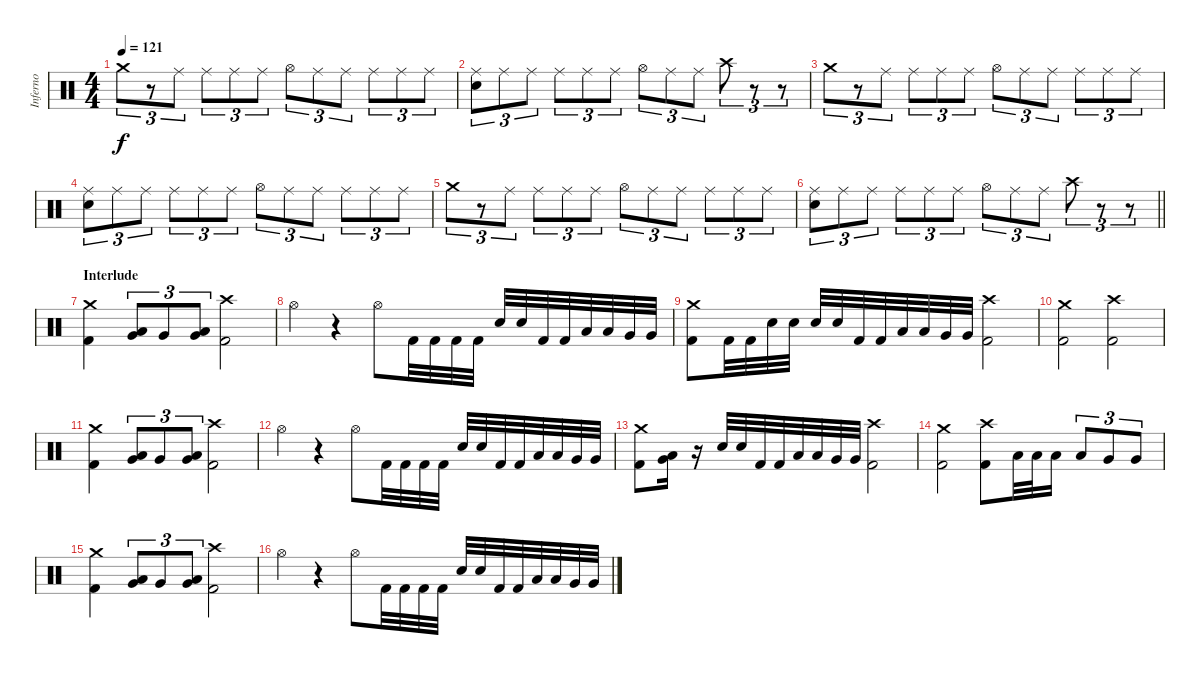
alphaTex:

\track ("Inferno" "Inferno") {instrument percussion}
\staff {score}
\articulation defaults
\ts (4 4)
\tempo 121
\clef neutral
\ks c "Crash medium (hit)".8{tu (3 2) dy f}
r.8{tu (3 2)} "Ride (middle)".8{tu (3 2)} "Ride (middle)".8{tu (3 2)} "Ride (middle)".8{tu (3 2)} "Ride (middle)".8{tu (3 2)} "Hi-Hat (open)".8{tu (3 2)} "Ride (middle)".8{tu (3 2)} "Ride (middle)".8{tu (3 2)} "Ride (middle)".8{tu (3 2)} "Ride (middle)".8{tu (3 2)} "Ride (middle)".8{tu (3 2)} |
("Ride (middle)" "Snare (hit) 2").8{tu (3 2)} "Ride (middle)".8{tu (3 2)} "Ride (middle)".8{tu (3 2)} "Ride (middle)".8{tu (3 2)} "Ride (middle)".8{tu (3 2)} "Ride (middle)".8{tu (3 2)} "Hi-Hat (open)".8{tu (3 2)} "Ride (middle)".8{tu (3 2)} "Ride (middle)".8{tu (3 2)} "Crash high (hit)".8{tu (3 2)} r.8{tu (3 2)} r.8{tu (3 2)} |
"Crash medium (hit)".8{tu (3 2)} r.8{tu (3 2)} "Ride (middle)".8{tu (3 2)} "Ride (middle)".8{tu (3 2)} "Ride (middle)".8{tu (3 2)} "Ride (middle)".8{tu (3 2)} "Hi-Hat (open)".8{tu (3 2)} "Ride (middle)".8{tu (3 2)} "Ride (middle)".8{tu (3 2)} "Ride (middle)".8{tu (3 2)} "Ride (middle)".8{tu (3 2)} "Ride (middle)".8{tu (3 2)} |
("Ride (middle)" "Snare (hit) 2").8{tu (3 2)} "Ride (middle)".8{tu (3 2)} "Ride (middle)".8{tu (3 2)} "Ride (middle)".8{tu (3 2)} "Ride (middle)".8{tu (3 2)} "Ride (middle)".8{tu (3 2)} "Hi-Hat (open)".8{tu (3 2)} "Ride (middle)".8{tu (3 2)} "Ride (middle)".8{tu (3 2)} "Ride (middle)".8{tu (3 2)} "Ride (middle)".8{tu (3 2)} "Ride (middle)".8{tu (3 2)} |
"Crash medium (hit)".8{tu (3 2)} r.8{tu (3 2)} "Ride (middle)".8{tu (3 2)} "Ride (middle)".8{tu (3 2)} "Ride (middle)".8{tu (3 2)} "Ride (middle)".8{tu (3 2)} "Hi-Hat (open)".8{tu (3 2)} "Ride (middle)".8{tu (3 2)} "Ride (middle)".8{tu (3 2)} "Ride (middle)".8{tu (3 2)} "Ride (middle)".8{tu (3 2)} "Ride (middle)".8{tu (3 2)} |
\barLineRight lightlight
("Ride (middle)" "Snare (hit) 2").8{tu (3 2)} "Ride (middle)".8{tu (3 2)} "Ride (middle)".8{tu (3 2)} "Ride (middle)".8{tu (3 2)} "Ride (middle)".8{tu (3 2)} "Ride (middle)".8{tu (3 2)} "Hi-Hat (open)".8{tu (3 2)} "Ride (middle)".8{tu (3 2)} "Ride (middle)".8{tu (3 2)} "Crash high (hit)".8{tu (3 2)} r.8{tu (3 2)} r.8{tu (3 2)} |
\section ("" "Interlude")
("Crash medium (hit)" "Kick (hit) 2").4 ("Low Tom (hit)" "Very Low Tom (hit)").8{tu (3 2)} "Very Low Tom (hit)".8{tu (3 2)} ("Very Low Tom (hit)" "Low Floor Tom (hit)").8{tu (3 2)} ("Crash high (hit)" "Kick (hit) 2").2 |
"Hi-Hat (open)".4 r.4 "Hi-Hat (open)".8 "Kick (hit) 2".32 "Kick (hit) 2".32 "Kick (hit) 2".32 "Kick (hit) 2".32 "Snare (hit) 2".32 "Snare (hit) 2".32 "Kick (hit) 2".32 "Kick (hit) 2".32 "Low Tom (hit)".32 "Low Tom (hit)".32 "Very Low Tom (hit)".32 "Very Low Tom (hit)".32 |
("Crash medium (hit)" "Kick (hit) 2").8 "Kick (hit) 2".32 "Kick (hit) 2".32 "Snare (hit) 2".32 "Snare (hit) 2".32 "Snare (hit) 2".32 "Snare (hit) 2".32 "Kick (hit) 2".32 "Kick (hit) 2".32 "Low Tom (hit)".32 "Low Tom (hit)".32 "Very Low Tom (hit)".32 "Very Low Tom (hit)".32 ("Crash high (hit)" "Kick (hit) 2").2 |
("Crash medium (hit)" "Kick (hit) 2").2 ("Crash high (hit)" "Kick (hit) 2").2 |
("Crash medium (hit)" "Kick (hit) 2").4 ("Low Tom (hit)" "Very Low Tom (hit)").8{tu (3 2)} "Very Low Tom (hit)".8{tu (3 2)} ("Very Low Tom (hit)" "Low Floor Tom (hit)").8{tu (3 2)} ("Crash high (hit)" "Kick (hit) 2").2 |
"Hi-Hat (open)".4 r.4 "Hi-Hat (open)".8 "Kick (hit) 2".32 "Kick (hit) 2".32 "Kick (hit) 2".32 "Kick (hit) 2".32 "Snare (hit) 2".32 "Snare (hit) 2".32 "Kick (hit) 2".32 "Kick (hit) 2".32 "Low Tom (hit)".32 "Low Tom (hit)".32 "Very Low Tom (hit)".32 "Very Low Tom (hit)".32 |
("Crash medium (hit)" "Kick (hit) 2").8 ("Low Tom (hit)" "Very Low Tom (hit)").16 r.16 "Snare (hit) 2".32 "Snare (hit) 2".32 "Kick (hit) 2".32 "Kick (hit) 2".32 "Low Tom (hit)".32 "Low Tom (hit)".32 "Very Low Tom (hit)".32 "Very Low Tom (hit)".32 ("Crash high (hit)" "Kick (hit) 2").2 |
("Crash medium (hit)" "Kick (hit) 2").2 ("Crash high (hit)" "Kick (hit) 2").8 "Low Tom (hit)".32 "Low Tom (hit)".32 "Low Tom (hit)".16 "Low Tom (hit)".8{tu (3 2)} "Very Low Tom (hit)".8{tu (3 2)} "Very Low Tom (hit)".8{tu (3 2)} |
("Crash medium (hit)" "Kick (hit) 2").4 ("Low Tom (hit)" "Very Low Tom (hit)").8{tu (3 2)} "Very Low Tom (hit)".8{tu (3 2)} ("Very Low Tom (hit)" "Low Floor Tom (hit)").8{tu (3 2)} ("Crash high (hit)" "Kick (hit) 2").2 |
"Hi-Hat (open)".4 r.4 "Hi-Hat (open)".8 "Kick (hit) 2".32 "Kick (hit) 2".32 "Kick (hit) 2".32 "Kick (hit) 2".32 "Snare (hit) 2".32 "Snare (hit) 2".32 "Kick (hit) 2".32 "Kick (hit) 2".32 "Low Tom (hit)".32 "Low Tom (hit)".32 "Very Low Tom (hit)".32 "Very Low Tom (hit)".32
